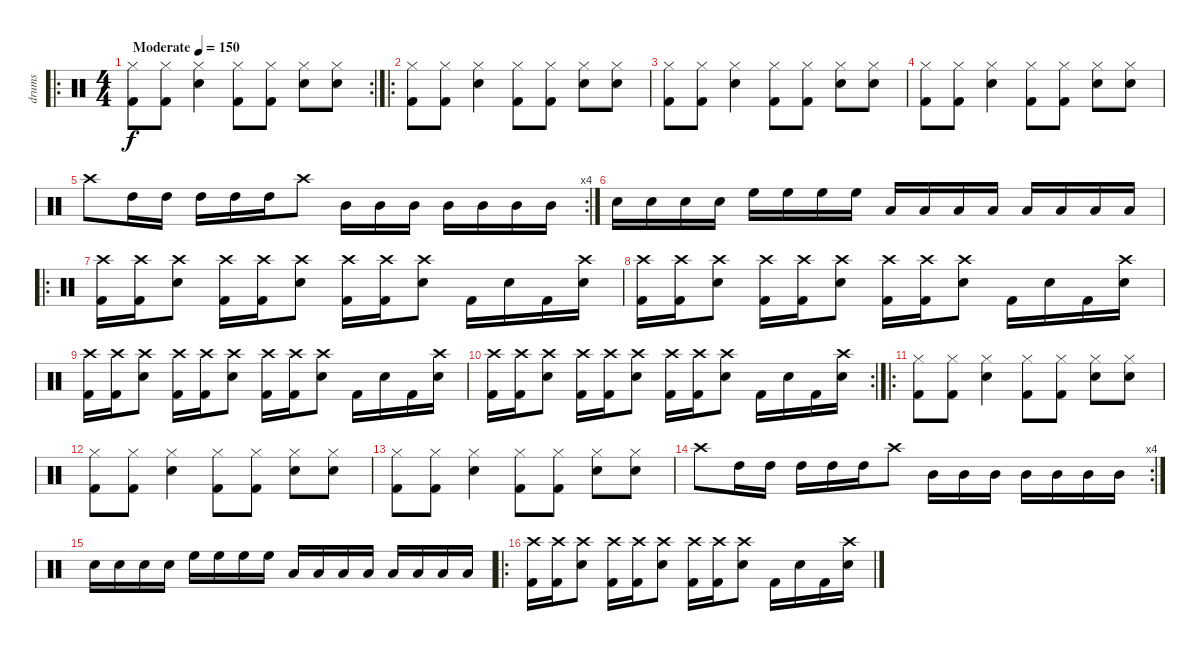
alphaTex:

\track ("drums" "drums") {instrument percussion}
\staff {score}
\articulation defaults
\ro
\rc 2
\ts (4 4)
\tempo (150 "Moderate")
\clef neutral
\ks c
("Hi-Hat (closed)" "Kick (hit) 2").8{dy f} ("Hi-Hat (closed)" "Kick (hit) 2").8 ("Hi-Hat (closed)" "Snare (hit) 2").4 ("Hi-Hat (closed)" "Kick (hit) 2").8 ("Hi-Hat (closed)" "Kick (hit) 2").8 ("Hi-Hat (closed)" "Snare (hit) 2").8 ("Hi-Hat (closed)" "Snare (hit) 2").8 |
\ro
("Hi-Hat (closed)" "Kick (hit) 2").8 ("Hi-Hat (closed)" "Kick (hit) 2").8 ("Hi-Hat (closed)" "Snare (hit) 2").4 ("Hi-Hat (closed)" "Kick (hit) 2").8 ("Hi-Hat (closed)" "Kick (hit) 2").8 ("Hi-Hat (closed)" "Snare (hit) 2").8 ("Hi-Hat (closed)" "Snare (hit) 2").8 |
("Hi-Hat (closed)" "Kick (hit) 2").8 ("Hi-Hat (closed)" "Kick (hit) 2").8 ("Hi-Hat (closed)" "Snare (hit) 2").4 ("Hi-Hat (closed)" "Kick (hit) 2").8 ("Hi-Hat (closed)" "Kick (hit) 2").8 ("Hi-Hat (closed)" "Snare (hit) 2").8 ("Hi-Hat (closed)" "Snare (hit) 2").8 |
("Hi-Hat (closed)" "Kick (hit) 2").8 ("Hi-Hat (closed)" "Kick (hit) 2").8 ("Hi-Hat (closed)" "Snare (hit) 2").4 ("Hi-Hat (closed)" "Kick (hit) 2").8 ("Hi-Hat (closed)" "Kick (hit) 2").8 ("Hi-Hat (closed)" "Snare (hit) 2").8 ("Hi-Hat (closed)" "Snare (hit) 2").8 |
\rc 4 "Crash high (hit)".8 "High Tom (hit)".16 "High Tom (hit)".16 "High Tom (hit)".16 "High Tom (hit)".16 "High Tom (hit)".16 "Crash high (hit)".8 "Mid Tom (hit)".16 "Mid Tom (hit)".16 "Mid Tom (hit)".16 "Mid Tom (hit)".16 "Mid Tom (hit)".16 "Mid Tom (hit)".16 "Mid Tom (hit)".16
|
"Electric Snare (hit)".16 "Electric Snare (hit)".16 "Electric Snare (hit)".16 "Electric Snare (hit)".16 "High Floor Tom (hit)".16 "High Floor Tom (hit)".16 "High Floor Tom (hit)".16 "High Floor Tom (hit)".16 "Low Tom (hit)".16 "Low Tom (hit)".16 "Low Tom (hit)".16 "Low Tom (hit)".16 "Low Floor Tom (hit)".16 "Low Floor Tom (hit)".16 "Low Floor Tom (hit)".16 "Low Floor Tom (hit)".16 |
\ro
("Crash high (hit)" "Kick (hit) 2").16 ("Crash high (hit)" "Kick (hit) 2").16 ("Crash high (hit)" "Snare (hit) 2").8 ("Crash high (hit)" "Kick (hit) 2").16 ("Crash high (hit)" "Kick (hit) 2").16 ("Crash high (hit)" "Snare (hit) 2").8 ("Crash high (hit)" "Kick (hit) 2").16 ("Crash high (hit)" "Kick (hit) 2").16 ("Crash high (hit)" "Snare (hit) 2").8 "Kick (hit) 2".16 "Snare (hit) 2".16 "Kick (hit) 2".16 ("Crash high (hit)" "Snare (hit) 2").16 |
("Crash high (hit)" "Kick (hit) 2").16 ("Crash high (hit)" "Kick (hit) 2").16 ("Crash high (hit)" "Snare (hit) 2").8 ("Crash high (hit)" "Kick (hit) 2").16 ("Crash high (hit)" "Kick (hit) 2").16 ("Crash high (hit)" "Snare (hit) 2").8 ("Crash high (hit)" "Kick (hit) 2").16 ("Crash high (hit)" "Kick (hit) 2").16 ("Crash high (hit)" "Snare (hit) 2").8 "Kick (hit) 2".16 "Snare (hit) 2".16 "Kick (hit) 2".16 ("Crash high (hit)" "Snare (hit) 2").16 |
("Crash high (hit)" "Kick (hit) 2").16 ("Crash high (hit)" "Kick (hit) 2").16 ("Crash high (hit)" "Snare (hit) 2").8 ("Crash high (hit)" "Kick (hit) 2").16 ("Crash high (hit)" "Kick (hit) 2").16 ("Crash high (hit)" "Snare (hit) 2").8 ("Crash high (hit)" "Kick (hit) 2").16 ("Crash high (hit)" "Kick (hit) 2").16 ("Crash high (hit)" "Snare (hit) 2").8 "Kick (hit) 2".16 "Snare (hit) 2".16 "Kick (hit) 2".16 ("Crash high (hit)" "Snare (hit) 2").16 |
\rc 2
("Crash high (hit)" "Kick (hit) 2").16 ("Crash high (hit)" "Kick (hit) 2").16 ("Crash high (hit)" "Snare (hit) 2").8 ("Crash high (hit)" "Kick (hit) 2").16 ("Crash high (hit)" "Kick (hit) 2").16 ("Crash high (hit)" "Snare (hit) 2").8 ("Crash high (hit)" "Kick (hit) 2").16 ("Crash high (hit)" "Kick (hit) 2").16 ("Crash high (hit)" "Snare (hit) 2").8 "Kick (hit) 2".16 "Snare (hit) 2".16 "Kick (hit) 2".16 ("Crash high (hit)" "Snare (hit) 2").16 |
\ro
("Hi-Hat (closed)" "Kick (hit) 2").8 ("Hi-Hat (closed)" "Kick (hit) 2").8 ("Hi-Hat (closed)" "Snare (hit) 2").4 ("Hi-Hat (closed)" "Kick (hit) 2").8 ("Hi-Hat (closed)" "Kick (hit) 2").8 ("Hi-Hat (closed)" "Snare (hit) 2").8 ("Hi-Hat (closed)" "Snare (hit) 2").8 |
("Hi-Hat (closed)" "Kick (hit) 2").8 ("Hi-Hat (closed)" "Kick (hit) 2").8 ("Hi-Hat (closed)" "Snare (hit) 2").4 ("Hi-Hat (closed)" "Kick (hit) 2").8 ("Hi-Hat (closed)" "Kick (hit) 2").8 ("Hi-Hat (closed)" "Snare (hit) 2").8 ("Hi-Hat (closed)" "Snare (hit) 2").8 |
("Hi-Hat (closed)" "Kick (hit) 2").8 ("Hi-Hat (closed)" "Kick (hit) 2").8 ("Hi-Hat (closed)" "Snare (hit) 2").4 ("Hi-Hat (closed)" "Kick (hit) 2").8 ("Hi-Hat (closed)" "Kick (hit) 2").8 ("Hi-Hat (closed)" "Snare (hit) 2").8 ("Hi-Hat (closed)" "Snare (hit) 2").8 |
\rc 4 "Crash high (hit)".8 "High Tom (hit)".16 "High Tom (hit)".16 "High Tom (hit)".16 "High Tom (hit)".16 "High Tom (hit)".16 "Crash high (hit)".8 "Mid Tom (hit)".16 "Mid Tom (hit)".16 "Mid Tom (hit)".16 "Mid Tom (hit)".16 "Mid Tom (hit)".16 "Mid Tom (hit)".16 "Mid Tom (hit)".16
|
"Electric Snare (hit)".16 "Electric Snare (hit)".16 "Electric Snare (hit)".16 "Electric Snare (hit)".16 "High Floor Tom (hit)".16 "High Floor Tom (hit)".16 "High Floor Tom (hit)".16 "High Floor Tom (hit)".16 "Low Tom (hit)".16 "Low Tom (hit)".16 "Low Tom (hit)".16 "Low Tom (hit)".16 "Low Floor Tom (hit)".16 "Low Floor Tom (hit)".16 "Low Floor Tom (hit)".16 "Low Floor Tom (hit)".16 |
\ro
("Crash high (hit)" "Kick (hit) 2").16 ("Crash high (hit)" "Kick (hit) 2").16 ("Crash high (hit)" "Snare (hit) 2").8 ("Crash high (hit)" "Kick (hit) 2").16 ("Crash high (hit)" "Kick (hit) 2").16 ("Crash high (hit)" "Snare (hit) 2").8 ("Crash high (hit)" "Kick (hit) 2").16 ("Crash high (hit)" "Kick (hit) 2").16 ("Crash high (hit)" "Snare (hit) 2").8 "Kick (hit) 2".16 "Snare (hit) 2".16 "Kick (hit) 2".16 ("Crash high (hit)" "Snare (hit) 2").16
